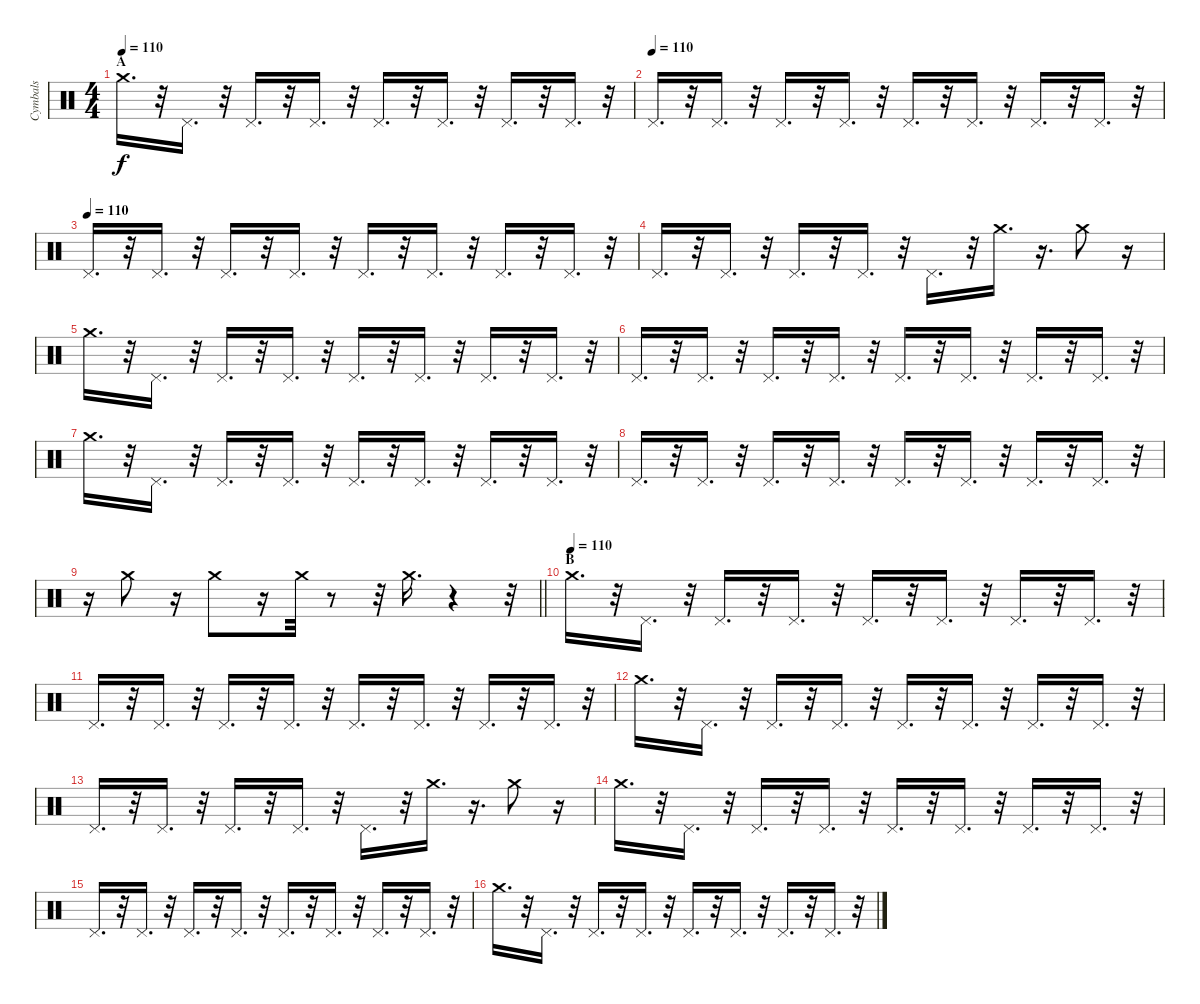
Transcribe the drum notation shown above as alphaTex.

\track ("Cymbals" "Cymbals") {instrument percussion}
\staff {score}
\articulation defaults
\ts (4 4)
\section ("" "A")
\tempo 110
\clef neutral
\ks c "Crash medium (hit)".16{d dy f}
r.32 "Pedal Hi-Hat (hit)".16{d} r.32 "Pedal Hi-Hat (hit)".16{d} r.32 "Pedal Hi-Hat (hit)".16{d} r.32 "Pedal Hi-Hat (hit)".16{d} r.32 "Pedal Hi-Hat (hit)".16{d} r.32 "Pedal Hi-Hat (hit)".16{d} r.32 "Pedal Hi-Hat (hit)".16{d} r.32 |
\tempo (110)
"Pedal Hi-Hat (hit)".16{d} r.32 "Pedal Hi-Hat (hit)".16{d} r.32 "Pedal Hi-Hat (hit)".16{d} r.32 "Pedal Hi-Hat (hit)".16{d} r.32 "Pedal Hi-Hat (hit)".16{d} r.32 "Pedal Hi-Hat (hit)".16{d} r.32 "Pedal Hi-Hat (hit)".16{d} r.32 "Pedal Hi-Hat (hit)".16{d} r.32 |
\tempo (110)
"Pedal Hi-Hat (hit)".16{d} r.32 "Pedal Hi-Hat (hit)".16{d} r.32 "Pedal Hi-Hat (hit)".16{d} r.32 "Pedal Hi-Hat (hit)".16{d} r.32 "Pedal Hi-Hat (hit)".16{d} r.32 "Pedal Hi-Hat (hit)".16{d} r.32 "Pedal Hi-Hat (hit)".16{d} r.32 "Pedal Hi-Hat (hit)".16{d} r.32 |
"Pedal Hi-Hat (hit)".16{d} r.32 "Pedal Hi-Hat (hit)".16{d} r.32 "Pedal Hi-Hat (hit)".16{d} r.32 "Pedal Hi-Hat (hit)".16{d} r.32 "Pedal Hi-Hat (hit)".16{d} r.32 "Crash medium (hit)".16{d} r.16{d} "Crash medium (hit)".8 r.16 |
"Crash medium (hit)".16{d} r.32 "Pedal Hi-Hat (hit)".16{d} r.32 "Pedal Hi-Hat (hit)".16{d} r.32 "Pedal Hi-Hat (hit)".16{d} r.32 "Pedal Hi-Hat (hit)".16{d} r.32 "Pedal Hi-Hat (hit)".16{d} r.32 "Pedal Hi-Hat (hit)".16{d} r.32 "Pedal Hi-Hat (hit)".16{d} r.32 |
"Pedal Hi-Hat (hit)".16{d} r.32 "Pedal Hi-Hat (hit)".16{d} r.32 "Pedal Hi-Hat (hit)".16{d} r.32 "Pedal Hi-Hat (hit)".16{d} r.32 "Pedal Hi-Hat (hit)".16{d} r.32 "Pedal Hi-Hat (hit)".16{d} r.32 "Pedal Hi-Hat (hit)".16{d} r.32 "Pedal Hi-Hat (hit)".16{d} r.32 |
"Crash medium (hit)".16{d} r.32 "Pedal Hi-Hat (hit)".16{d} r.32 "Pedal Hi-Hat (hit)".16{d} r.32 "Pedal Hi-Hat (hit)".16{d} r.32 "Pedal Hi-Hat (hit)".16{d} r.32 "Pedal Hi-Hat (hit)".16{d} r.32 "Pedal Hi-Hat (hit)".16{d} r.32 "Pedal Hi-Hat (hit)".16{d} r.32 |
"Pedal Hi-Hat (hit)".16{d} r.32 "Pedal Hi-Hat (hit)".16{d} r.32 "Pedal Hi-Hat (hit)".16{d} r.32 "Pedal Hi-Hat (hit)".16{d} r.32 "Pedal Hi-Hat (hit)".16{d} r.32 "Pedal Hi-Hat (hit)".16{d} r.32 "Pedal Hi-Hat (hit)".16{d} r.32 "Pedal Hi-Hat (hit)".16{d} r.32 |
\barLineRight lightlight
r.16 "Crash medium (hit)".8 r.16 "Crash medium (hit)".8 r.16 "Crash medium (hit)".32 r.8 r.32 "Crash medium (hit)".16{d} r.4 r.32 |
\section ("" "B")
\tempo (110)
"Crash medium (hit)".16{d} r.32 "Pedal Hi-Hat (hit)".16{d} r.32 "Pedal Hi-Hat (hit)".16{d} r.32 "Pedal Hi-Hat (hit)".16{d} r.32 "Pedal Hi-Hat (hit)".16{d} r.32 "Pedal Hi-Hat (hit)".16{d} r.32 "Pedal Hi-Hat (hit)".16{d} r.32 "Pedal Hi-Hat (hit)".16{d} r.32 |
"Pedal Hi-Hat (hit)".16{d} r.32 "Pedal Hi-Hat (hit)".16{d} r.32 "Pedal Hi-Hat (hit)".16{d} r.32 "Pedal Hi-Hat (hit)".16{d} r.32 "Pedal Hi-Hat (hit)".16{d} r.32 "Pedal Hi-Hat (hit)".16{d} r.32 "Pedal Hi-Hat (hit)".16{d} r.32 "Pedal Hi-Hat (hit)".16{d} r.32 |
"Crash medium (hit)".16{d} r.32 "Pedal Hi-Hat (hit)".16{d} r.32 "Pedal Hi-Hat (hit)".16{d} r.32 "Pedal Hi-Hat (hit)".16{d} r.32 "Pedal Hi-Hat (hit)".16{d} r.32 "Pedal Hi-Hat (hit)".16{d} r.32 "Pedal Hi-Hat (hit)".16{d} r.32 "Pedal Hi-Hat (hit)".16{d} r.32 |
"Pedal Hi-Hat (hit)".16{d} r.32 "Pedal Hi-Hat (hit)".16{d} r.32 "Pedal Hi-Hat (hit)".16{d} r.32 "Pedal Hi-Hat (hit)".16{d} r.32 "Pedal Hi-Hat (hit)".16{d} r.32 "Crash medium (hit)".16{d} r.16{d} "Crash medium (hit)".8 r.16 |
"Crash medium (hit)".16{d} r.32 "Pedal Hi-Hat (hit)".16{d} r.32 "Pedal Hi-Hat (hit)".16{d} r.32 "Pedal Hi-Hat (hit)".16{d} r.32 "Pedal Hi-Hat (hit)".16{d} r.32 "Pedal Hi-Hat (hit)".16{d} r.32 "Pedal Hi-Hat (hit)".16{d} r.32 "Pedal Hi-Hat (hit)".16{d} r.32 |
"Pedal Hi-Hat (hit)".16{d} r.32 "Pedal Hi-Hat (hit)".16{d} r.32 "Pedal Hi-Hat (hit)".16{d} r.32 "Pedal Hi-Hat (hit)".16{d} r.32 "Pedal Hi-Hat (hit)".16{d} r.32 "Pedal Hi-Hat (hit)".16{d} r.32 "Pedal Hi-Hat (hit)".16{d} r.32 "Pedal Hi-Hat (hit)".16{d} r.32 |
"Crash medium (hit)".16{d} r.32 "Pedal Hi-Hat (hit)".16{d} r.32 "Pedal Hi-Hat (hit)".16{d} r.32 "Pedal Hi-Hat (hit)".16{d} r.32 "Pedal Hi-Hat (hit)".16{d} r.32 "Pedal Hi-Hat (hit)".16{d} r.32 "Pedal Hi-Hat (hit)".16{d} r.32 "Pedal Hi-Hat (hit)".16{d} r.32
